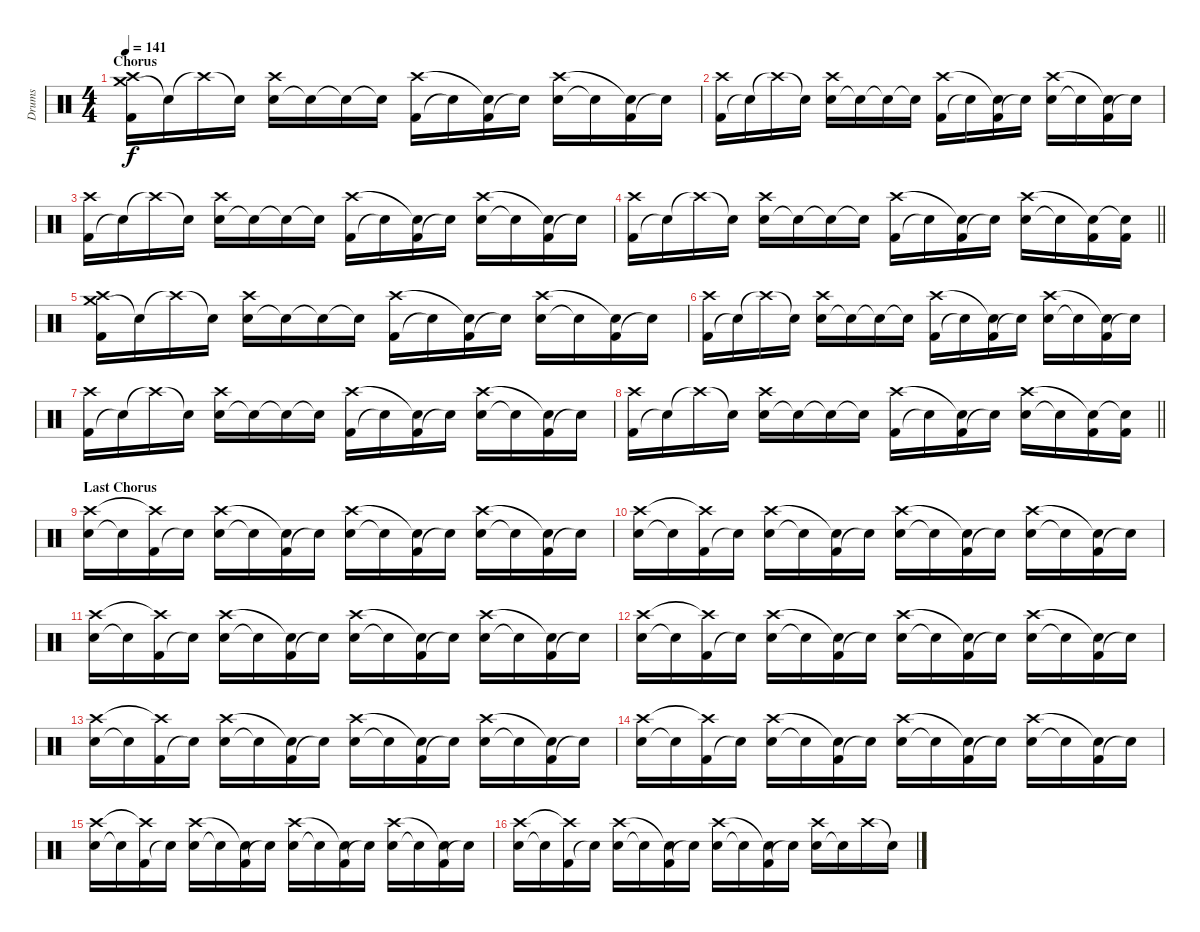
\track ("Drums" "Drums") {instrument percussion}
\staff {score}
\articulation defaults
\ts (4 4)
\section ("" "Chorus")
\tempo 141
\clef neutral
\ks c
("Crash medium (hit)" "Kick (hit) 2" "Crash high (hit)").16{dy f} "Snare (hit)"{t}.16 "Crash high (hit)"{t}.16 "Snare (hit)"{t}.16 ("Snare (hit) 2" "Crash high (hit)").16 "Snare (hit)"{t}.16 "Snare (hit)"{t}.16 "Snare (hit)"{t}.16 ("Kick (hit) 2" "Crash high (hit)").16 "Snare (hit)"{t}.16 ("Kick (hit) 2" "Snare (hit)"{t}).16 "Snare (hit)"{t}.16 ("Snare (hit) 2" "Crash high (hit)").16 "Snare (hit)"{t}.16 ("Kick (hit) 2" "Snare (hit)"{t}).16 "Snare (hit)"{t}.16 |
("Kick (hit) 2" "Crash high (hit)").16 "Snare (hit)"{t}.16 "Crash high (hit)"{t}.16 "Snare (hit)"{t}.16 ("Snare (hit) 2" "Crash high (hit)").16 "Snare (hit)"{t}.16 "Snare (hit)"{t}.16 "Snare (hit)"{t}.16 ("Kick (hit) 2" "Crash high (hit)").16 "Snare (hit)"{t}.16 ("Kick (hit) 2" "Snare (hit)"{t}).16 "Snare (hit)"{t}.16 ("Snare (hit) 2" "Crash high (hit)").16 "Snare (hit)"{t}.16 ("Kick (hit) 2" "Snare (hit)"{t}).16 "Snare (hit)"{t}.16 |
("Kick (hit) 2" "Crash high (hit)").16 "Snare (hit)"{t}.16 "Crash high (hit)"{t}.16 "Snare (hit)"{t}.16 ("Snare (hit) 2" "Crash high (hit)").16 "Snare (hit)"{t}.16 "Snare (hit)"{t}.16 "Snare (hit)"{t}.16 ("Kick (hit) 2" "Crash high (hit)").16 "Snare (hit)"{t}.16 ("Kick (hit) 2" "Snare (hit)"{t}).16 "Snare (hit)"{t}.16 ("Snare (hit) 2" "Crash high (hit)").16 "Snare (hit)"{t}.16 ("Kick (hit) 2" "Snare (hit)"{t}).16 "Snare (hit)"{t}.16 |
\barLineRight lightlight
("Kick (hit) 2" "Crash high (hit)").16 "Snare (hit)"{t}.16 "Crash high (hit)"{t}.16 "Snare (hit)"{t}.16 ("Snare (hit) 2" "Crash high (hit)").16 "Snare (hit)"{t}.16 "Snare (hit)"{t}.16 "Snare (hit)"{t}.16 ("Kick (hit) 2" "Crash high (hit)").16 "Snare (hit)"{t}.16 ("Kick (hit) 2" "Snare (hit)"{t}).16 "Snare (hit)"{t}.16 ("Snare (hit) 2" "Crash high (hit)").16 "Snare (hit)"{t}.16 ("Kick (hit) 2" "Snare (hit)"{t}).16 ("Kick (hit) 2" "Snare (hit)"{t}).16 |
("Crash medium (hit)" "Kick (hit) 2" "Crash high (hit)").16 "Snare (hit)"{t}.16 "Crash high (hit)"{t}.16 "Snare (hit)"{t}.16 ("Snare (hit) 2" "Crash high (hit)").16 "Snare (hit)"{t}.16 "Snare (hit)"{t}.16 "Snare (hit)"{t}.16 ("Kick (hit) 2" "Crash high (hit)").16 "Snare (hit)"{t}.16 ("Kick (hit) 2" "Snare (hit)"{t}).16 "Snare (hit)"{t}.16 ("Snare (hit) 2" "Crash high (hit)").16 "Snare (hit)"{t}.16 ("Kick (hit) 2" "Snare (hit)"{t}).16 "Snare (hit)"{t}.16 |
("Kick (hit) 2" "Crash high (hit)").16 "Snare (hit)"{t}.16 "Crash high (hit)"{t}.16 "Snare (hit)"{t}.16 ("Snare (hit) 2" "Crash high (hit)").16 "Snare (hit)"{t}.16 "Snare (hit)"{t}.16 "Snare (hit)"{t}.16 ("Kick (hit) 2" "Crash high (hit)").16 "Snare (hit)"{t}.16 ("Kick (hit) 2" "Snare (hit)"{t}).16 "Snare (hit)"{t}.16 ("Snare (hit) 2" "Crash high (hit)").16 "Snare (hit)"{t}.16 ("Kick (hit) 2" "Snare (hit)"{t}).16 "Snare (hit)"{t}.16 |
("Kick (hit) 2" "Crash high (hit)").16 "Snare (hit)"{t}.16 "Crash high (hit)"{t}.16 "Snare (hit)"{t}.16 ("Snare (hit) 2" "Crash high (hit)").16 "Snare (hit)"{t}.16 "Snare (hit)"{t}.16 "Snare (hit)"{t}.16 ("Kick (hit) 2" "Crash high (hit)").16 "Snare (hit)"{t}.16 ("Kick (hit) 2" "Snare (hit)"{t}).16 "Snare (hit)"{t}.16 ("Snare (hit) 2" "Crash high (hit)").16 "Snare (hit)"{t}.16 ("Kick (hit) 2" "Snare (hit)"{t}).16 "Snare (hit)"{t}.16 |
\barLineRight lightlight
("Kick (hit) 2" "Crash high (hit)").16 "Snare (hit)"{t}.16 "Crash high (hit)"{t}.16 "Snare (hit)"{t}.16 ("Snare (hit) 2" "Crash high (hit)").16 "Snare (hit)"{t}.16 "Snare (hit)"{t}.16 "Snare (hit)"{t}.16 ("Kick (hit) 2" "Crash high (hit)").16 "Snare (hit)"{t}.16 ("Kick (hit) 2" "Snare (hit)"{t}).16 "Snare (hit)"{t}.16 ("Snare (hit) 2" "Crash high (hit)").16 "Snare (hit)"{t}.16 ("Kick (hit) 2" "Snare (hit)"{t}).16 ("Kick (hit) 2" "Snare (hit)"{t}).16 |
\section ("" "Last Chorus")
("Snare (hit) 2" "Crash high (hit)").16 "Snare (hit)"{t}.16 ("Kick (hit) 2" "Crash high (hit)"{t}).16 "Snare (hit)"{t}.16 ("Snare (hit) 2" "Crash high (hit)").16 "Snare (hit)"{t}.16 ("Kick (hit) 2" "Snare (hit)"{t}).16 "Snare (hit)"{t}.16 ("Snare (hit) 2" "Crash high (hit)").16 "Snare (hit)"{t}.16 ("Kick (hit) 2" "Snare (hit)"{t}).16 "Snare (hit)"{t}.16 ("Snare (hit) 2" "Crash high (hit)").16 "Snare (hit)"{t}.16 ("Kick (hit) 2" "Snare (hit)"{t}).16 "Snare (hit)"{t}.16 |
("Snare (hit) 2" "Crash high (hit)").16 "Snare (hit)"{t}.16 ("Kick (hit) 2" "Crash high (hit)"{t}).16 "Snare (hit)"{t}.16 ("Snare (hit) 2" "Crash high (hit)").16 "Snare (hit)"{t}.16 ("Kick (hit) 2" "Snare (hit)"{t}).16 "Snare (hit)"{t}.16 ("Snare (hit) 2" "Crash high (hit)").16 "Snare (hit)"{t}.16 ("Kick (hit) 2" "Snare (hit)"{t}).16 "Snare (hit)"{t}.16 ("Snare (hit) 2" "Crash high (hit)").16 "Snare (hit)"{t}.16 ("Kick (hit) 2" "Snare (hit)"{t}).16 "Snare (hit)"{t}.16 |
("Snare (hit) 2" "Crash high (hit)").16 "Snare (hit)"{t}.16 ("Kick (hit) 2" "Crash high (hit)"{t}).16 "Snare (hit)"{t}.16 ("Snare (hit) 2" "Crash high (hit)").16 "Snare (hit)"{t}.16 ("Kick (hit) 2" "Snare (hit)"{t}).16 "Snare (hit)"{t}.16 ("Snare (hit) 2" "Crash high (hit)").16 "Snare (hit)"{t}.16 ("Kick (hit) 2" "Snare (hit)"{t}).16 "Snare (hit)"{t}.16 ("Snare (hit) 2" "Crash high (hit)").16 "Snare (hit)"{t}.16 ("Kick (hit) 2" "Snare (hit)"{t}).16 "Snare (hit)"{t}.16 |
("Snare (hit) 2" "Crash high (hit)").16 "Snare (hit)"{t}.16 ("Kick (hit) 2" "Crash high (hit)"{t}).16 "Snare (hit)"{t}.16 ("Snare (hit) 2" "Crash high (hit)").16 "Snare (hit)"{t}.16 ("Kick (hit) 2" "Snare (hit)"{t}).16 "Snare (hit)"{t}.16 ("Snare (hit) 2" "Crash high (hit)").16 "Snare (hit)"{t}.16 ("Kick (hit) 2" "Snare (hit)"{t}).16 "Snare (hit)"{t}.16 ("Snare (hit) 2" "Crash high (hit)").16 "Snare (hit)"{t}.16 ("Kick (hit) 2" "Snare (hit)"{t}).16 "Snare (hit)"{t}.16 |
("Snare (hit) 2" "Crash high (hit)").16 "Snare (hit)"{t}.16 ("Kick (hit) 2" "Crash high (hit)"{t}).16 "Snare (hit)"{t}.16 ("Snare (hit) 2" "Crash high (hit)").16 "Snare (hit)"{t}.16 ("Kick (hit) 2" "Snare (hit)"{t}).16 "Snare (hit)"{t}.16 ("Snare (hit) 2" "Crash high (hit)").16 "Snare (hit)"{t}.16 ("Kick (hit) 2" "Snare (hit)"{t}).16 "Snare (hit)"{t}.16 ("Snare (hit) 2" "Crash high (hit)").16 "Snare (hit)"{t}.16 ("Kick (hit) 2" "Snare (hit)"{t}).16 "Snare (hit)"{t}.16 |
("Snare (hit) 2" "Crash high (hit)").16 "Snare (hit)"{t}.16 ("Kick (hit) 2" "Crash high (hit)"{t}).16 "Snare (hit)"{t}.16 ("Snare (hit) 2" "Crash high (hit)").16 "Snare (hit)"{t}.16 ("Kick (hit) 2" "Snare (hit)"{t}).16 "Snare (hit)"{t}.16 ("Snare (hit) 2" "Crash high (hit)").16 "Snare (hit)"{t}.16 ("Kick (hit) 2" "Snare (hit)"{t}).16 "Snare (hit)"{t}.16 ("Snare (hit) 2" "Crash high (hit)").16 "Snare (hit)"{t}.16 ("Kick (hit) 2" "Snare (hit)"{t}).16 "Snare (hit)"{t}.16 |
("Snare (hit) 2" "Crash high (hit)").16 "Snare (hit)"{t}.16 ("Kick (hit) 2" "Crash high (hit)"{t}).16 "Snare (hit)"{t}.16 ("Snare (hit) 2" "Crash high (hit)").16 "Snare (hit)"{t}.16 ("Kick (hit) 2" "Snare (hit)"{t}).16 "Snare (hit)"{t}.16 ("Snare (hit) 2" "Crash high (hit)").16 "Snare (hit)"{t}.16 ("Kick (hit) 2" "Snare (hit)"{t}).16 "Snare (hit)"{t}.16 ("Snare (hit) 2" "Crash high (hit)").16 "Snare (hit)"{t}.16 ("Kick (hit) 2" "Snare (hit)"{t}).16 "Snare (hit)"{t}.16 |
("Snare (hit) 2" "Crash high (hit)").16 "Snare (hit)"{t}.16 ("Kick (hit) 2" "Crash high (hit)"{t}).16 "Snare (hit)"{t}.16 ("Snare (hit) 2" "Crash high (hit)").16 "Snare (hit)"{t}.16 ("Kick (hit) 2" "Snare (hit)"{t}).16 "Snare (hit)"{t}.16 ("Snare (hit) 2" "Crash high (hit)").16 "Snare (hit)"{t}.16 ("Kick (hit) 2" "Snare (hit)"{t}).16 "Snare (hit)"{t}.16 ("Snare (hit) 2" "Crash high (hit)").16 "Snare (hit)"{t}.16 "Crash high (hit)".16 "Snare (hit)"{t}.16
